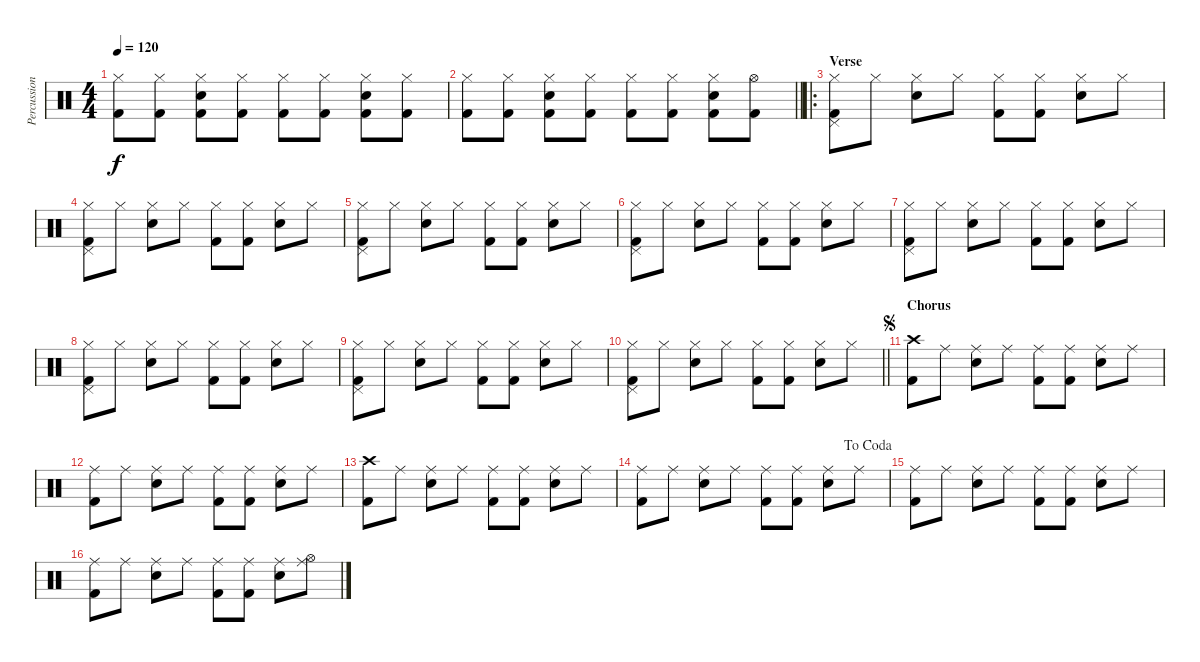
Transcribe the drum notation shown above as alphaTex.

\track ("Percussion" "Percussion") {instrument percussion}
\staff {score}
\articulation defaults
\ts (4 4)
\tempo 120
\clef neutral
\ks c
("Kick (hit) 2" "Hi-Hat (closed)").8{dy f} ("Kick (hit) 2" "Hi-Hat (closed)").8 ("Kick (hit) 2" "Electric Snare (hit)" "Hi-Hat (closed)").8 ("Kick (hit) 2" "Hi-Hat (closed)").8 ("Kick (hit) 2" "Hi-Hat (closed)").8 ("Kick (hit) 2" "Hi-Hat (closed)").8 ("Kick (hit) 2" "Electric Snare (hit)" "Hi-Hat (closed)").8 ("Kick (hit) 2" "Hi-Hat (closed)").8 |
\barLineRight lightlight
("Kick (hit) 2" "Hi-Hat (closed)").8 ("Kick (hit) 2" "Hi-Hat (closed)").8 ("Kick (hit) 2" "Electric Snare (hit)" "Hi-Hat (closed)").8 ("Kick (hit) 2" "Hi-Hat (closed)").8 ("Kick (hit) 2" "Hi-Hat (closed)").8 ("Kick (hit) 2" "Hi-Hat (closed)").8 ("Kick (hit) 2" "Electric Snare (hit)" "Hi-Hat (closed)").8 ("Kick (hit) 2" "Hi-Hat (open)").8 |
\ro
\section ("" "Verse")
("Kick (hit) 2" "Pedal Hi-Hat (hit)" "Hi-Hat (closed)").8 "Hi-Hat (closed)".8 ("Electric Snare (hit)" "Hi-Hat (closed)").8 "Hi-Hat (closed)".8 ("Kick (hit) 2" "Hi-Hat (closed)").8 ("Kick (hit) 2" "Hi-Hat (closed)").8 ("Electric Snare (hit)" "Hi-Hat (closed)").8 "Hi-Hat (closed)".8 |
("Kick (hit) 2" "Pedal Hi-Hat (hit)" "Hi-Hat (closed)").8 "Hi-Hat (closed)".8 ("Electric Snare (hit)" "Hi-Hat (closed)").8 "Hi-Hat (closed)".8 ("Kick (hit) 2" "Hi-Hat (closed)").8 ("Kick (hit) 2" "Hi-Hat (closed)").8 ("Electric Snare (hit)" "Hi-Hat (closed)").8 "Hi-Hat (closed)".8 |
("Kick (hit) 2" "Pedal Hi-Hat (hit)" "Hi-Hat (closed)").8 "Hi-Hat (closed)".8 ("Electric Snare (hit)" "Hi-Hat (closed)").8 "Hi-Hat (closed)".8 ("Kick (hit) 2" "Hi-Hat (closed)").8 ("Kick (hit) 2" "Hi-Hat (closed)").8 ("Electric Snare (hit)" "Hi-Hat (closed)").8 "Hi-Hat (closed)".8 |
("Kick (hit) 2" "Pedal Hi-Hat (hit)" "Hi-Hat (closed)").8 "Hi-Hat (closed)".8 ("Electric Snare (hit)" "Hi-Hat (closed)").8 "Hi-Hat (closed)".8 ("Kick (hit) 2" "Hi-Hat (closed)").8 ("Kick (hit) 2" "Hi-Hat (closed)").8 ("Electric Snare (hit)" "Hi-Hat (closed)").8 "Hi-Hat (closed)".8 |
("Kick (hit) 2" "Pedal Hi-Hat (hit)" "Hi-Hat (closed)").8 "Hi-Hat (closed)".8 ("Electric Snare (hit)" "Hi-Hat (closed)").8 "Hi-Hat (closed)".8 ("Kick (hit) 2" "Hi-Hat (closed)").8 ("Kick (hit) 2" "Hi-Hat (closed)").8 ("Electric Snare (hit)" "Hi-Hat (closed)").8 "Hi-Hat (closed)".8 |
("Kick (hit) 2" "Pedal Hi-Hat (hit)" "Hi-Hat (closed)").8 "Hi-Hat (closed)".8 ("Electric Snare (hit)" "Hi-Hat (closed)").8 "Hi-Hat (closed)".8 ("Kick (hit) 2" "Hi-Hat (closed)").8 ("Kick (hit) 2" "Hi-Hat (closed)").8 ("Electric Snare (hit)" "Hi-Hat (closed)").8 "Hi-Hat (closed)".8 |
("Kick (hit) 2" "Pedal Hi-Hat (hit)" "Hi-Hat (closed)").8 "Hi-Hat (closed)".8 ("Electric Snare (hit)" "Hi-Hat (closed)").8 "Hi-Hat (closed)".8 ("Kick (hit) 2" "Hi-Hat (closed)").8 ("Kick (hit) 2" "Hi-Hat (closed)").8 ("Electric Snare (hit)" "Hi-Hat (closed)").8 "Hi-Hat (closed)".8 |
\barLineRight lightlight
("Kick (hit) 2" "Pedal Hi-Hat (hit)" "Hi-Hat (closed)").8 "Hi-Hat (closed)".8 ("Electric Snare (hit)" "Hi-Hat (closed)").8 "Hi-Hat (closed)".8 ("Kick (hit) 2" "Hi-Hat (closed)").8 ("Kick (hit) 2" "Hi-Hat (closed)").8 ("Electric Snare (hit)" "Hi-Hat (closed)").8 "Hi-Hat (closed)".8 |
\section ("" "Chorus")
\jump segno
("Kick (hit) 2" "Crash high (hit)").8 "Ride (middle)".8 ("Electric Snare (hit)" "Ride (middle)").8 "Ride (middle)".8 ("Kick (hit) 2" "Ride (middle)").8 ("Kick (hit) 2" "Ride (middle)").8 ("Electric Snare (hit)" "Ride (middle)").8 "Ride (middle)".8 |
("Kick (hit) 2" "Ride (middle)").8 "Ride (middle)".8 ("Electric Snare (hit)" "Ride (middle)").8 "Ride (middle)".8 ("Kick (hit) 2" "Ride (middle)").8 ("Kick (hit) 2" "Ride (middle)").8 ("Electric Snare (hit)" "Ride (middle)").8 "Ride (middle)".8 |
("Kick (hit) 2" "Crash high (hit)").8 "Ride (middle)".8 ("Electric Snare (hit)" "Ride (middle)").8 "Ride (middle)".8 ("Kick (hit) 2" "Ride (middle)").8 ("Kick (hit) 2" "Ride (middle)").8 ("Electric Snare (hit)" "Ride (middle)").8 "Ride (middle)".8 |
\jump dacoda
("Kick (hit) 2" "Ride (middle)").8 "Ride (middle)".8 ("Electric Snare (hit)" "Ride (middle)").8 "Ride (middle)".8 ("Kick (hit) 2" "Ride (middle)").8 ("Kick (hit) 2" "Ride (middle)").8 ("Electric Snare (hit)" "Ride (middle)").8 "Ride (middle)".8 |
("Kick (hit) 2" "Ride (middle)").8 "Ride (middle)".8 ("Electric Snare (hit)" "Ride (middle)").8 "Ride (middle)".8 ("Kick (hit) 2" "Ride (middle)").8 ("Kick (hit) 2" "Ride (middle)").8 ("Electric Snare (hit)" "Ride (middle)").8 "Ride (middle)".8 |
("Kick (hit) 2" "Ride (middle)").8 "Ride (middle)".8 ("Electric Snare (hit)" "Ride (middle)").8 "Ride (middle)".8 ("Kick (hit) 2" "Ride (middle)").8 ("Kick (hit) 2" "Ride (middle)").8 ("Electric Snare (hit)" "Ride (middle)").8 ("Ride (middle)" "Hi-Hat (open)").8
